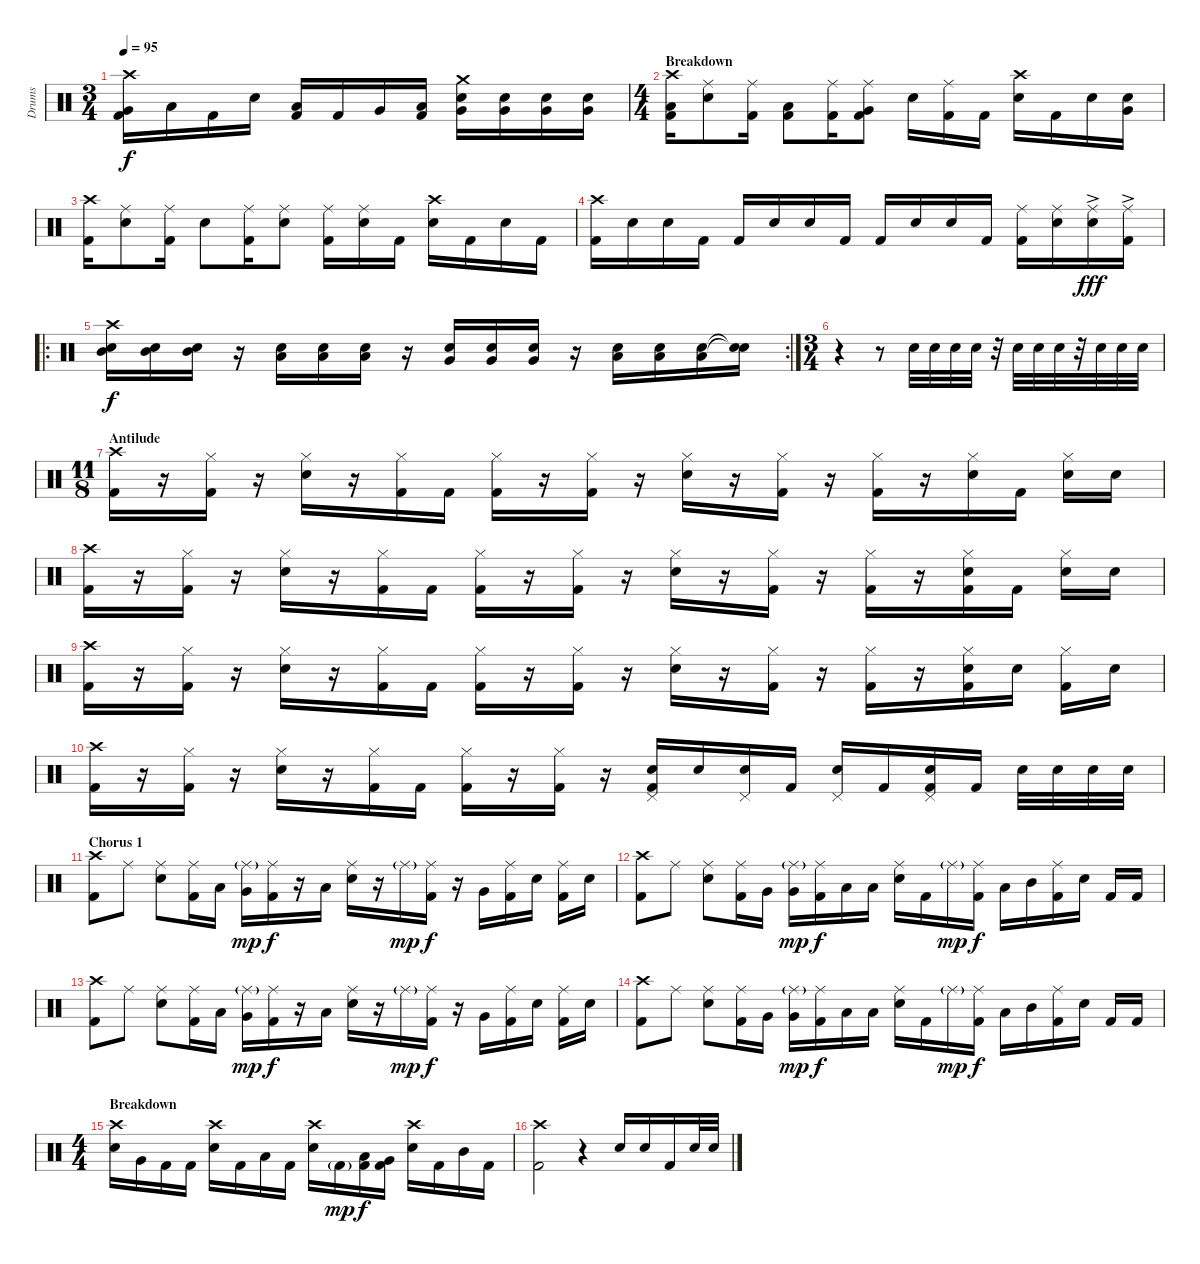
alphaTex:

\track ("Drums" "Drums") {instrument percussion}
\staff {score}
\articulation defaults
\ts (3 4)
\tempo 95
\clef neutral
\ks c
("Crash high (hit)" "Very Low Tom (hit)" "Kick (hit) 2").16{dy f} "Low Floor Tom (hit)".16 "Kick (hit) 2".16 "Electric Snare (hit)".16 ("Low Floor Tom (hit)" "Kick (hit) 2").16 "Kick (hit) 2".16 "Very Low Tom (hit)".16 ("Low Floor Tom (hit)" "Kick (hit) 2").16 ("Crash medium (hit)" "Electric Snare (hit)" "Very Low Tom (hit)").16 ("Electric Snare (hit)" "Very Low Tom (hit)").16 ("Electric Snare (hit)" "Very Low Tom (hit)").16 ("Electric Snare (hit)" "Very Low Tom (hit)").16 |
\ts (4 4)
\section ("" "Breakdown")
("Crash high (hit)" "Low Floor Tom (hit)" "Kick (hit) 2").16 ("Ride (middle)" "Electric Snare (hit)").8 ("Ride (middle)" "Kick (hit) 2").16 ("Low Floor Tom (hit)" "Kick (hit) 2").8 ("Ride (middle)" "Kick (hit) 2").16 ("Ride (middle)" "Very Low Tom (hit)" "Kick (hit) 2").8 "Electric Snare (hit)".16 ("Ride (middle)" "Kick (hit) 2").16 "Kick (hit) 2".16 ("Crash high (hit)" "Electric Snare (hit)").16 "Kick (hit) 2".16 "Electric Snare (hit)".16 ("Electric Snare (hit)" "Very Low Tom (hit)").16 |
("Crash high (hit)" "Kick (hit) 2").16 ("Ride (middle)" "Electric Snare (hit)").8 ("Ride (middle)" "Kick (hit) 2").16 "Electric Snare (hit)".8 ("Ride (middle)" "Kick (hit) 2").16 ("Ride (middle)" "Electric Snare (hit)").8 ("Ride (middle)" "Kick (hit) 2").16 ("Ride (middle)" "Electric Snare (hit)").16 "Kick (hit) 2".16 ("Crash high (hit)" "Electric Snare (hit)").16 "Kick (hit) 2".16 "Electric Snare (hit)".16 "Kick (hit) 2".16 |
("Crash high (hit)" "Kick (hit) 2").16 "Electric Snare (hit)".16 "Electric Snare (hit)".16 "Kick (hit) 2".16 "Kick (hit) 2".16 "Electric Snare (hit)".16 "Electric Snare (hit)".16 "Kick (hit) 2".16 "Kick (hit) 2".16 "Electric Snare (hit)".16 "Electric Snare (hit)".16 "Kick (hit) 2".16 ("Ride (middle)" "Kick (hit) 2").16 ("Ride (middle)" "Electric Snare (hit)").16 ("Ride (middle)"{ac} "Electric Snare (hit)").16{dy fff} ("Ride (middle)"{ac} "Kick (hit) 2").16 |
\ro
\rc 2
("Crash high (hit)" "Electric Snare (hit)" "Mid Tom (hit)").16{dy f} ("Electric Snare (hit)" "Mid Tom (hit)").16 ("Electric Snare (hit)" "Mid Tom (hit)").16 r.16 ("Electric Snare (hit)" "Low Tom (hit)").16 ("Electric Snare (hit)" "Low Tom (hit)").16 ("Electric Snare (hit)" "Low Tom (hit)").16 r.16 ("Electric Snare (hit)" "Very Low Tom (hit)").16 ("Electric Snare (hit)" "Very Low Tom (hit)").16 ("Electric Snare (hit)" "Very Low Tom (hit)").16 r.16 ("Electric Snare (hit)" "Low Floor Tom (hit)").16 ("Electric Snare (hit)" "Low Floor Tom (hit)").16 ("Electric Snare (hit)" "Low Floor Tom (hit)").16 ("Snare (hit)"{t} "Snare (hit)"{t}).16 |
\ts (3 4)
r.4 r.8 "Electric Snare (hit)".32 "Electric Snare (hit)".32 "Electric Snare (hit)".32 "Electric Snare (hit)".32 r.32 "Electric Snare (hit)".32 "Electric Snare (hit)".32 "Electric Snare (hit)".32 r.32 "Electric Snare (hit)".32 "Electric Snare (hit)".32 "Electric Snare (hit)".32 |
\ts (11 8)
\section ("" "Antilude")
("Crash high (hit)" "Kick (hit) 2").16 r.16 ("Hi-Hat (closed)" "Kick (hit) 2").16 r.16 ("Hi-Hat (closed)" "Electric Snare (hit)").16 r.16 ("Hi-Hat (closed)" "Kick (hit) 2").16 "Kick (hit) 2".16 ("Hi-Hat (closed)" "Kick (hit) 2").16 r.16 ("Hi-Hat (closed)" "Kick (hit) 2").16 r.16 ("Hi-Hat (closed)" "Electric Snare (hit)").16 r.16 ("Hi-Hat (closed)" "Kick (hit) 2").16 r.16 ("Hi-Hat (closed)" "Kick (hit) 2").16 r.16 ("Hi-Hat (closed)" "Electric Snare (hit)").16 "Kick (hit) 2".16 ("Hi-Hat (closed)" "Electric Snare (hit)").16 "Electric Snare (hit)".16 |
("Crash high (hit)" "Kick (hit) 2").16 r.16 ("Hi-Hat (closed)" "Kick (hit) 2").16 r.16 ("Hi-Hat (closed)" "Electric Snare (hit)").16 r.16 ("Hi-Hat (closed)" "Kick (hit) 2").16 "Kick (hit) 2".16 ("Hi-Hat (closed)" "Kick (hit) 2").16 r.16 ("Hi-Hat (closed)" "Kick (hit) 2").16 r.16 ("Hi-Hat (closed)" "Electric Snare (hit)").16 r.16 ("Hi-Hat (closed)" "Kick (hit) 2").16 r.16 ("Hi-Hat (closed)" "Kick (hit) 2").16 r.16 ("Hi-Hat (closed)" "Electric Snare (hit)" "Kick (hit) 2").16 "Kick (hit) 2".16 ("Hi-Hat (closed)" "Electric Snare (hit)").16 "Electric Snare (hit)".16 |
("Crash high (hit)" "Kick (hit) 2").16 r.16 ("Hi-Hat (closed)" "Kick (hit) 2").16 r.16 ("Hi-Hat (closed)" "Electric Snare (hit)").16 r.16 ("Hi-Hat (closed)" "Kick (hit) 2").16 "Kick (hit) 2".16 ("Hi-Hat (closed)" "Kick (hit) 2").16 r.16 ("Hi-Hat (closed)" "Kick (hit) 2").16 r.16 ("Hi-Hat (closed)" "Electric Snare (hit)").16 r.16 ("Hi-Hat (closed)" "Kick (hit) 2").16 r.16 ("Hi-Hat (closed)" "Kick (hit) 2").16 r.16 ("Hi-Hat (closed)" "Electric Snare (hit)" "Kick (hit) 2").16 "Electric Snare (hit)".16 ("Hi-Hat (closed)" "Kick (hit) 2").16 "Electric Snare (hit)".16 |
("Crash high (hit)" "Kick (hit) 2").16 r.16 ("Hi-Hat (closed)" "Kick (hit) 2").16 r.16 ("Hi-Hat (closed)" "Electric Snare (hit)").16 r.16 ("Hi-Hat (closed)" "Kick (hit) 2").16 "Kick (hit) 2".16 ("Hi-Hat (closed)" "Kick (hit) 2").16 r.16 ("Hi-Hat (closed)" "Kick (hit) 2").16 r.16 ("Pedal Hi-Hat (hit)" "Electric Snare (hit)" "Kick (hit) 2").16 "Electric Snare (hit)".16 ("Pedal Hi-Hat (hit)" "Electric Snare (hit)").16 "Kick (hit) 2".16 ("Pedal Hi-Hat (hit)" "Electric Snare (hit)").16 "Kick (hit) 2".16 ("Pedal Hi-Hat (hit)" "Electric Snare (hit)" "Kick (hit) 2").16 "Kick (hit) 2".16 "Electric Snare (hit)".32 "Electric Snare (hit)".32 "Electric Snare (hit)".32 "Electric Snare (hit)".32 |
\section ("" "Chorus 1")
("Crash high (hit)" "Kick (hit) 2").8 "Ride (middle)".8 ("Ride (middle)" "Electric Snare (hit)").8 ("Ride (middle)" "Kick (hit) 2").16 "Low Tom (hit)".16 ("Ride (middle)"{g} "Very Low Tom (hit)").16{dy mp} ("Ride (middle)" "Kick (hit) 2").16{dy f} r.16 "Low Floor Tom (hit)".16 ("Ride (middle)" "Electric Snare (hit)").16 r.16 "Ride (middle)"{g}.16{dy mp} ("Ride (middle)" "Kick (hit) 2").16{dy f} r.16 "Very Low Tom (hit)".16 ("Ride (middle)" "Kick (hit) 2").16 "Electric Snare (hit)".16 ("Ride (middle)" "Kick (hit) 2").16 "Electric Snare (hit)".16 |
("Crash high (hit)" "Kick (hit) 2").8 "Ride (middle)".8 ("Ride (middle)" "Electric Snare (hit)").8 ("Ride (middle)" "Kick (hit) 2").16 "Very Low Tom (hit)".16 ("Ride (middle)"{g} "Very Low Tom (hit)").16{dy mp} ("Ride (middle)" "Kick (hit) 2").16{dy f} "Low Tom (hit)".16 "Low Floor Tom (hit)".16 ("Ride (middle)" "Electric Snare (hit)").16 "Kick (hit) 2".16 "Ride (middle)"{g}.16{dy mp} ("Ride (middle)" "Kick (hit) 2").16{dy f} "Low Floor Tom (hit)".16 "Mid Tom (hit)".16 ("Ride (middle)" "Kick (hit) 2").16 "Electric Snare (hit)".16 "Kick (hit) 2".16 "Kick (hit) 2".16 |
("Crash high (hit)" "Kick (hit) 2").8 "Ride (middle)".8 ("Ride (middle)" "Electric Snare (hit)").8 ("Ride (middle)" "Kick (hit) 2").16 "Low Tom (hit)".16 ("Ride (middle)"{g} "Very Low Tom (hit)").16{dy mp} ("Ride (middle)" "Kick (hit) 2").16{dy f} r.16 "Low Floor Tom (hit)".16 ("Ride (middle)" "Electric Snare (hit)").16 r.16 "Ride (middle)"{g}.16{dy mp} ("Ride (middle)" "Kick (hit) 2").16{dy f} r.16 "Very Low Tom (hit)".16 ("Ride (middle)" "Kick (hit) 2").16 "Electric Snare (hit)".16 ("Ride (middle)" "Kick (hit) 2").16 "Electric Snare (hit)".16 |
("Crash high (hit)" "Kick (hit) 2").8 "Ride (middle)".8 ("Ride (middle)" "Electric Snare (hit)").8 ("Ride (middle)" "Kick (hit) 2").16 "Very Low Tom (hit)".16 ("Ride (middle)"{g} "Very Low Tom (hit)").16{dy mp} ("Ride (middle)" "Kick (hit) 2").16{dy f} "Low Tom (hit)".16 "Low Floor Tom (hit)".16 ("Ride (middle)" "Electric Snare (hit)").16 "Kick (hit) 2".16 "Ride (middle)"{g}.16{dy mp} ("Ride (middle)" "Kick (hit) 2").16{dy f} "Low Floor Tom (hit)".16 "Mid Tom (hit)".16 ("Ride (middle)" "Kick (hit) 2").16 "Electric Snare (hit)".16 "Kick (hit) 2".16 "Kick (hit) 2".16 |
\ts (4 4)
\section ("" "Breakdown")
("Crash high (hit)" "Electric Snare (hit)").16 "Very Low Tom (hit)".16 "Kick (hit) 2".16 "Kick (hit) 2".16 ("Crash high (hit)" "Electric Snare (hit)").16 "Kick (hit) 2".16 "Low Floor Tom (hit)".16 "Kick (hit) 2".16 ("Crash high (hit)" "Electric Snare (hit)").16 "Kick (hit) 2"{g}.16{dy mp} ("Low Tom (hit)" "Kick (hit) 2").16{dy f} ("Very Low Tom (hit)" "Kick (hit) 2").16 ("Crash high (hit)" "Electric Snare (hit)").16 "Kick (hit) 2".16 "Mid Tom (hit)".16 "Kick (hit) 2".16 |
("Crash high (hit)" "Kick (hit) 2").2 r.4 "Electric Snare (hit)".16 "Electric Snare (hit)".16 "Kick (hit) 2".16 "Electric Snare (hit)".32 "Electric Snare (hit)".32
